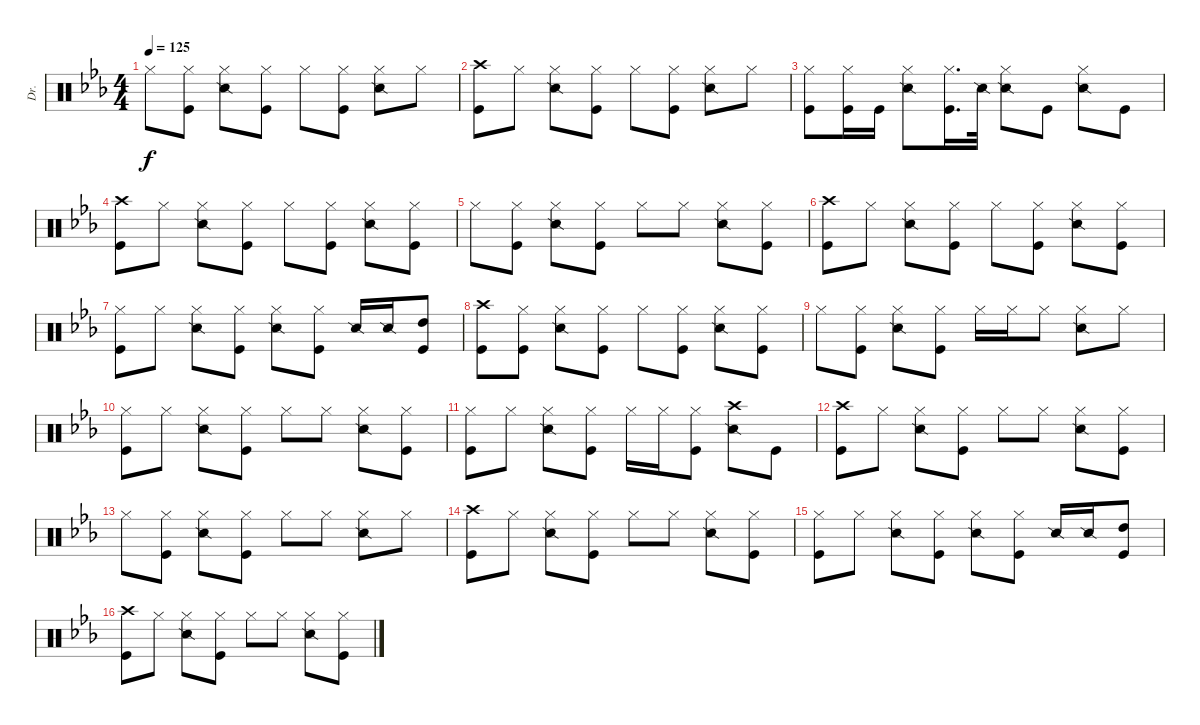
\track ("Dr." "Dr.") {instrument percussion}
\staff {score}
\articulation defaults
\ts (4 4)
\tempo 125
\clef neutral
\ks eb "Hi-Hat (closed)".8{dy f}
("Hi-Hat (closed)" "Kick (hit)").8 ("Hi-Hat (closed)" "Snare (side stick) 2").8 ("Hi-Hat (closed)" "Kick (hit)").8 "Hi-Hat (closed)".8 ("Hi-Hat (closed)" "Kick (hit)").8 ("Hi-Hat (closed)" "Snare (side stick) 2").8 "Hi-Hat (closed)".8 |
("Crash high (hit)" "Kick (hit)").8 "Hi-Hat (closed)".8 ("Hi-Hat (closed)" "Snare (side stick) 2").8 ("Hi-Hat (closed)" "Kick (hit)").8 "Hi-Hat (closed)".8 ("Hi-Hat (closed)" "Kick (hit)").8 ("Hi-Hat (closed)" "Snare (side stick) 2").8 "Hi-Hat (closed)".8 |
("Hi-Hat (closed)" "Kick (hit)").8 ("Hi-Hat (closed)" "Kick (hit)").16{beam merge} "Kick (hit)".16{beam split} ("Hi-Hat (closed)" "Snare (side stick) 2").8 ("Hi-Hat (closed)" "Kick (hit)").16{d beam merge} "Snare (side stick) 2".32 ("Hi-Hat (closed)" "Snare (side stick) 2").8 "Kick (hit)".8 ("Hi-Hat (closed)" "Snare (side stick) 2").8 "Kick (hit)".8 |
("Crash high (hit)" "Kick (hit)").8 "Hi-Hat (closed)".8 ("Hi-Hat (closed)" "Snare (side stick) 2").8 ("Hi-Hat (closed)" "Kick (hit)").8 "Hi-Hat (closed)".8 ("Hi-Hat (closed)" "Kick (hit)").8 ("Hi-Hat (closed)" "Snare (side stick) 2").8 ("Hi-Hat (closed)" "Kick (hit)").8 |
"Hi-Hat (closed)".8 ("Hi-Hat (closed)" "Kick (hit)").8 ("Hi-Hat (closed)" "Snare (side stick) 2").8 ("Hi-Hat (closed)" "Kick (hit)").8 "Hi-Hat (closed)".8 "Hi-Hat (closed)".8 ("Hi-Hat (closed)" "Snare (side stick) 2").8 ("Hi-Hat (closed)" "Kick (hit)").8 |
("Crash high (hit)" "Kick (hit)").8 "Hi-Hat (closed)".8 ("Hi-Hat (closed)" "Snare (side stick) 2").8 ("Hi-Hat (closed)" "Kick (hit)").8 "Hi-Hat (closed)".8 ("Hi-Hat (closed)" "Kick (hit)").8 ("Hi-Hat (closed)" "Snare (side stick) 2").8 ("Hi-Hat (closed)" "Kick (hit)").8 |
("Hi-Hat (closed)" "Kick (hit)").8 "Hi-Hat (closed)".8 ("Hi-Hat (closed)" "Snare (side stick) 2").8 ("Hi-Hat (closed)" "Kick (hit)").8 ("Hi-Hat (closed)" "Snare (side stick) 2").8 ("Hi-Hat (closed)" "Kick (hit)").8 "Snare (side stick) 2".16 "Snare (side stick) 2".16 ("High Tom (hit)" "Kick (hit)").8 |
("Crash high (hit)" "Kick (hit)").8 ("Hi-Hat (closed)" "Kick (hit)").8 ("Hi-Hat (closed)" "Snare (side stick) 2").8 ("Hi-Hat (closed)" "Kick (hit)").8 "Hi-Hat (closed)".8 ("Hi-Hat (closed)" "Kick (hit)").8 ("Hi-Hat (closed)" "Snare (side stick) 2").8 ("Hi-Hat (closed)" "Kick (hit)").8 |
"Hi-Hat (closed)".8 ("Hi-Hat (closed)" "Kick (hit)").8 ("Hi-Hat (closed)" "Snare (side stick) 2").8 ("Hi-Hat (closed)" "Kick (hit)").8 "Hi-Hat (closed)".16 "Hi-Hat (closed)".16 "Hi-Hat (closed)".8 ("Hi-Hat (closed)" "Snare (side stick) 2").8 "Hi-Hat (closed)".8 |
("Hi-Hat (closed)" "Kick (hit)").8 "Hi-Hat (closed)".8 ("Hi-Hat (closed)" "Snare (side stick) 2").8 ("Hi-Hat (closed)" "Kick (hit)").8 "Hi-Hat (closed)".8 "Hi-Hat (closed)".8 ("Hi-Hat (closed)" "Snare (side stick) 2").8 ("Hi-Hat (closed)" "Kick (hit)").8 |
("Hi-Hat (closed)" "Kick (hit)").8 "Hi-Hat (closed)".8 ("Hi-Hat (closed)" "Snare (side stick) 2").8 ("Hi-Hat (closed)" "Kick (hit)").8 "Hi-Hat (closed)".16 "Hi-Hat (closed)".16 ("Hi-Hat (closed)" "Kick (hit)").8 ("Crash high (hit)" "Snare (side stick) 2").8 "Kick (hit)".8 |
("Crash high (hit)" "Kick (hit)").8 "Hi-Hat (closed)".8 ("Hi-Hat (closed)" "Snare (side stick) 2").8 ("Hi-Hat (closed)" "Kick (hit)").8 "Hi-Hat (closed)".8 "Hi-Hat (closed)".8 ("Hi-Hat (closed)" "Snare (side stick) 2").8 ("Hi-Hat (closed)" "Kick (hit)").8 |
"Hi-Hat (closed)".8 ("Hi-Hat (closed)" "Kick (hit)").8 ("Hi-Hat (closed)" "Snare (side stick) 2").8 ("Hi-Hat (closed)" "Kick (hit)").8 "Hi-Hat (closed)".8 "Hi-Hat (closed)".8 ("Hi-Hat (closed)" "Snare (side stick) 2").8 "Hi-Hat (closed)".8 |
("Crash high (hit)" "Kick (hit)").8 "Hi-Hat (closed)".8 ("Hi-Hat (closed)" "Snare (side stick) 2").8 ("Hi-Hat (closed)" "Kick (hit)").8 "Hi-Hat (closed)".8 "Hi-Hat (closed)".8 ("Hi-Hat (closed)" "Snare (side stick) 2").8 ("Hi-Hat (closed)" "Kick (hit)").8 |
("Hi-Hat (closed)" "Kick (hit)").8 "Hi-Hat (closed)".8 ("Hi-Hat (closed)" "Snare (side stick) 2").8 ("Hi-Hat (closed)" "Kick (hit)").8 ("Hi-Hat (closed)" "Snare (side stick) 2").8 ("Hi-Hat (closed)" "Kick (hit)").8 "Snare (side stick) 2".16 "Snare (side stick) 2".16 ("High Tom (hit)" "Kick (hit)").8 |
("Crash high (hit)" "Kick (hit)").8 "Hi-Hat (closed)".8 ("Hi-Hat (closed)" "Snare (side stick) 2").8 ("Hi-Hat (closed)" "Kick (hit)").8 "Hi-Hat (closed)".8 "Hi-Hat (closed)".8 ("Hi-Hat (closed)" "Snare (side stick) 2").8 ("Hi-Hat (closed)" "Kick (hit)").8
